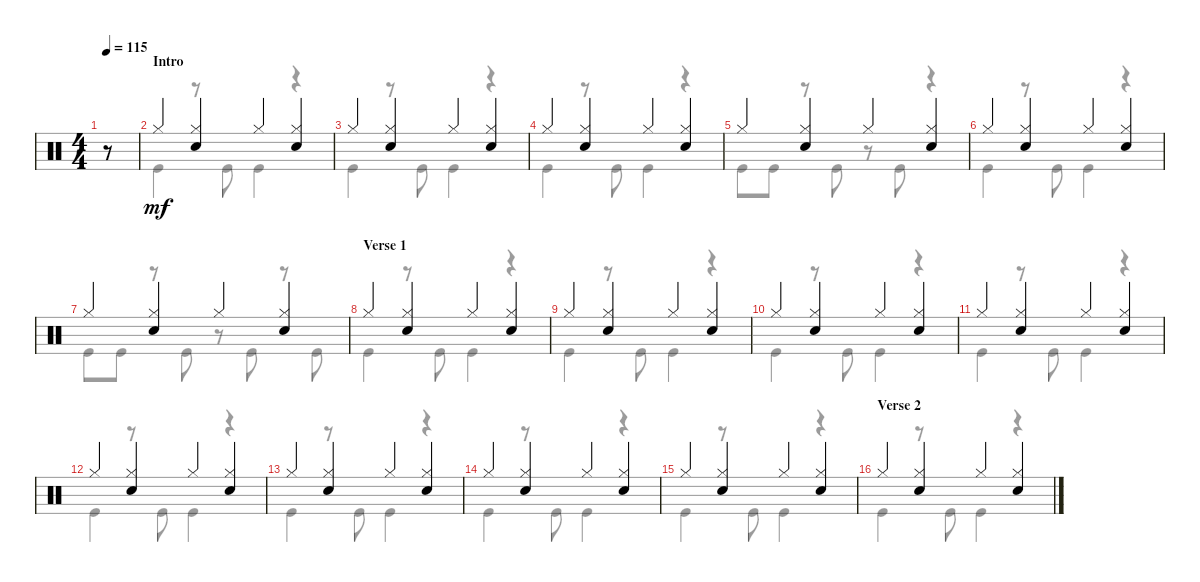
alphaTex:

\defaultSystemsLayout 4
\bracketExtendMode nobrackets
\singleTrackTrackNamePolicy hidden
\multiTrackTrackNamePolicy hidden
\firstSystemTrackNameOrientation horizontal
\otherSystemsTrackNameOrientation horizontal
\track ("Drums" "Drums") {instrument percussion}
\staff {score}
\articulation defaults
\voice
\ts (4 4)
\ac
\tempo 115
\clef neutral
\ks c
r.8{dy mf} |
\section ("" "Intro")
"Hi-Hat (closed)".4 ("Hi-Hat (closed)" "Snare (hit) 2").4 "Hi-Hat (closed)".4 ("Hi-Hat (closed)" "Snare (hit) 2").4 |
"Hi-Hat (closed)".4 ("Hi-Hat (closed)" "Snare (hit) 2").4 "Hi-Hat (closed)".4 ("Hi-Hat (closed)" "Snare (hit) 2").4 |
"Hi-Hat (closed)".4 ("Hi-Hat (closed)" "Snare (hit) 2").4 "Hi-Hat (closed)".4 ("Hi-Hat (closed)" "Snare (hit) 2").4 |
"Hi-Hat (closed)".4 ("Hi-Hat (closed)" "Snare (hit) 2").4 "Hi-Hat (closed)".4 ("Hi-Hat (closed)" "Snare (hit) 2").4 |
"Hi-Hat (closed)".4 ("Hi-Hat (closed)" "Snare (hit) 2").4 "Hi-Hat (closed)".4 ("Hi-Hat (closed)" "Snare (hit) 2").4 |
"Hi-Hat (closed)".4 ("Hi-Hat (closed)" "Snare (hit) 2").4 "Hi-Hat (closed)".4 ("Hi-Hat (closed)" "Snare (hit) 2").4 |
\section ("" "Verse 1")
"Hi-Hat (closed)".4 ("Hi-Hat (closed)" "Snare (hit) 2").4 "Hi-Hat (closed)".4 ("Hi-Hat (closed)" "Snare (hit) 2").4 |
"Hi-Hat (closed)".4 ("Hi-Hat (closed)" "Snare (hit) 2").4 "Hi-Hat (closed)".4 ("Hi-Hat (closed)" "Snare (hit) 2").4 |
"Hi-Hat (closed)".4 ("Hi-Hat (closed)" "Snare (hit) 2").4 "Hi-Hat (closed)".4 ("Hi-Hat (closed)" "Snare (hit) 2").4 |
"Hi-Hat (closed)".4 ("Hi-Hat (closed)" "Snare (hit) 2").4 "Hi-Hat (closed)".4 ("Hi-Hat (closed)" "Snare (hit) 2").4 |
"Hi-Hat (closed)".4 ("Hi-Hat (closed)" "Snare (hit) 2").4 "Hi-Hat (closed)".4 ("Hi-Hat (closed)" "Snare (hit) 2").4 |
"Hi-Hat (closed)".4 ("Hi-Hat (closed)" "Snare (hit) 2").4 "Hi-Hat (closed)".4 ("Hi-Hat (closed)" "Snare (hit) 2").4 |
"Hi-Hat (closed)".4 ("Hi-Hat (closed)" "Snare (hit) 2").4 "Hi-Hat (closed)".4 ("Hi-Hat (closed)" "Snare (hit) 2").4 |
"Hi-Hat (closed)".4 ("Hi-Hat (closed)" "Snare (hit) 2").4 "Hi-Hat (closed)".4 ("Hi-Hat (closed)" "Snare (hit) 2").4 |
\section ("" "Verse 2")
"Hi-Hat (closed)".4 ("Hi-Hat (closed)" "Snare (hit) 2").4 "Hi-Hat (closed)".4 ("Hi-Hat (closed)" "Snare (hit) 2").4
\voice
\clef neutral
\ottava regular
\simile none
\ks c
|
"Kick (hit)".4 r.8 "Kick (hit)".8 "Kick (hit)".4 r.4 |
"Kick (hit)".4 r.8 "Kick (hit)".8 "Kick (hit)".4 r.4 |
"Kick (hit)".4 r.8 "Kick (hit)".8 "Kick (hit)".4 r.4 |
"Kick (hit)".8 "Kick (hit)".8 r.8 "Kick (hit)".8 r.8 "Kick (hit)".8 r.4 |
"Kick (hit)".4 r.8 "Kick (hit)".8 "Kick (hit)".4 r.4 |
"Kick (hit)".8 "Kick (hit)".8 r.8 "Kick (hit)".8 r.8 "Kick (hit)".8 r.8 "Kick (hit)".8 |
"Kick (hit)".4 r.8 "Kick (hit)".8 "Kick (hit)".4 r.4 |
"Kick (hit)".4 r.8 "Kick (hit)".8 "Kick (hit)".4 r.4 |
"Kick (hit)".4 r.8 "Kick (hit)".8 "Kick (hit)".4 r.4 |
"Kick (hit)".4 r.8 "Kick (hit)".8 "Kick (hit)".4 r.4 |
"Kick (hit)".4 r.8 "Kick (hit)".8 "Kick (hit)".4 r.4 |
"Kick (hit)".4 r.8 "Kick (hit)".8 "Kick (hit)".4 r.4 |
"Kick (hit)".4 r.8 "Kick (hit)".8 "Kick (hit)".4 r.4 |
"Kick (hit)".4 r.8 "Kick (hit)".8 "Kick (hit)".4 r.4 |
"Kick (hit)".4 r.8 "Kick (hit)".8 "Kick (hit)".4 r.4
